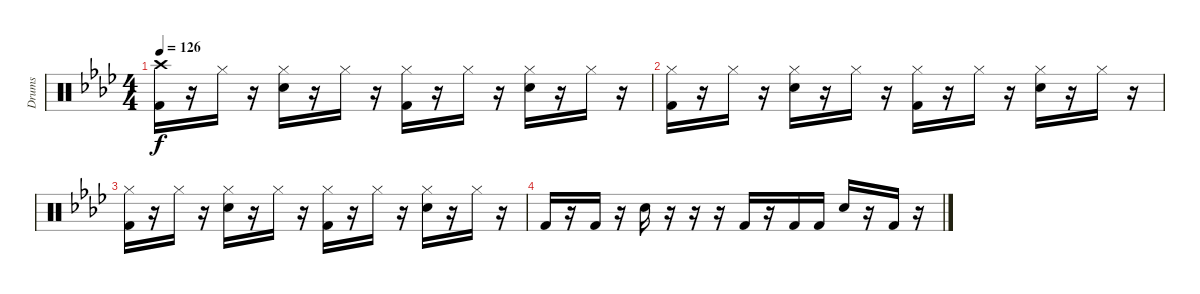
\track ("Drums" "Drums") {instrument percussion}
\staff {score}
\articulation defaults
\ts (4 4)
\tempo 126
\clef neutral
\ks ab
("Crash high (hit)" "Kick (hit) 2").16{dy f} r.16 "Hi-Hat (closed)".16 r.16 ("Hi-Hat (closed)" "Snare (hit) 2").16 r.16 "Hi-Hat (closed)".16 r.16 ("Hi-Hat (closed)" "Kick (hit) 2").16 r.16 "Hi-Hat (closed)".16 r.16 ("Hi-Hat (closed)" "Snare (hit) 2").16 r.16 "Hi-Hat (closed)".16 r.16 |
("Hi-Hat (closed)" "Kick (hit) 2").16 r.16 "Hi-Hat (closed)".16 r.16 ("Hi-Hat (closed)" "Snare (hit) 2").16 r.16 "Hi-Hat (closed)".16 r.16 ("Hi-Hat (closed)" "Kick (hit) 2").16 r.16 "Hi-Hat (closed)".16 r.16 ("Hi-Hat (closed)" "Snare (hit) 2").16 r.16 "Hi-Hat (closed)".16 r.16 |
("Hi-Hat (closed)" "Kick (hit) 2").16 r.16 "Hi-Hat (closed)".16 r.16 ("Hi-Hat (closed)" "Snare (hit) 2").16 r.16 "Hi-Hat (closed)".16 r.16 ("Hi-Hat (closed)" "Kick (hit) 2").16 r.16 "Hi-Hat (closed)".16 r.16 ("Hi-Hat (closed)" "Snare (hit) 2").16 r.16 "Hi-Hat (closed)".16 r.16 |
"Kick (hit) 2".16 r.16 "Kick (hit) 2".16 r.16 "Electric Snare (hit)".16 r.16 r.16 r.16 "Kick (hit) 2".16 r.16 "Kick (hit) 2".16 "Kick (hit) 2".16 "Electric Snare (hit)".16 r.16 "Kick (hit) 2".16 r.16
